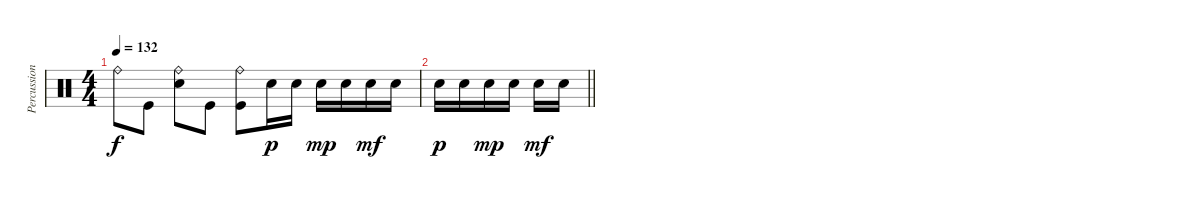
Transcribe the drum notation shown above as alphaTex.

\track ("Percussion" "Percussion") {instrument percussion}
\staff {score}
\articulation defaults
\ts (4 4)
\tempo 132
\clef neutral
\ks c "Ride (bell)".8{dy f} "Kick (hit)".8
("Ride (bell)" "Snare (hit) 2").8 "Kick (hit)".8 ("Ride (bell)" "Kick (hit)").8 "Snare (hit) 2".16{dy p} "Snare (hit) 2".16 "Snare (hit) 2".16{dy mp} "Snare (hit) 2".16 "Snare (hit) 2".16{dy mf} "Snare (hit) 2".16 |
\barLineRight lightlight "Snare (hit) 2".16{dy p} "Snare (hit) 2".16 "Snare (hit) 2".16{dy mp} "Snare (hit) 2".16 "Snare (hit) 2".16{dy mf} "Snare (hit) 2".16
